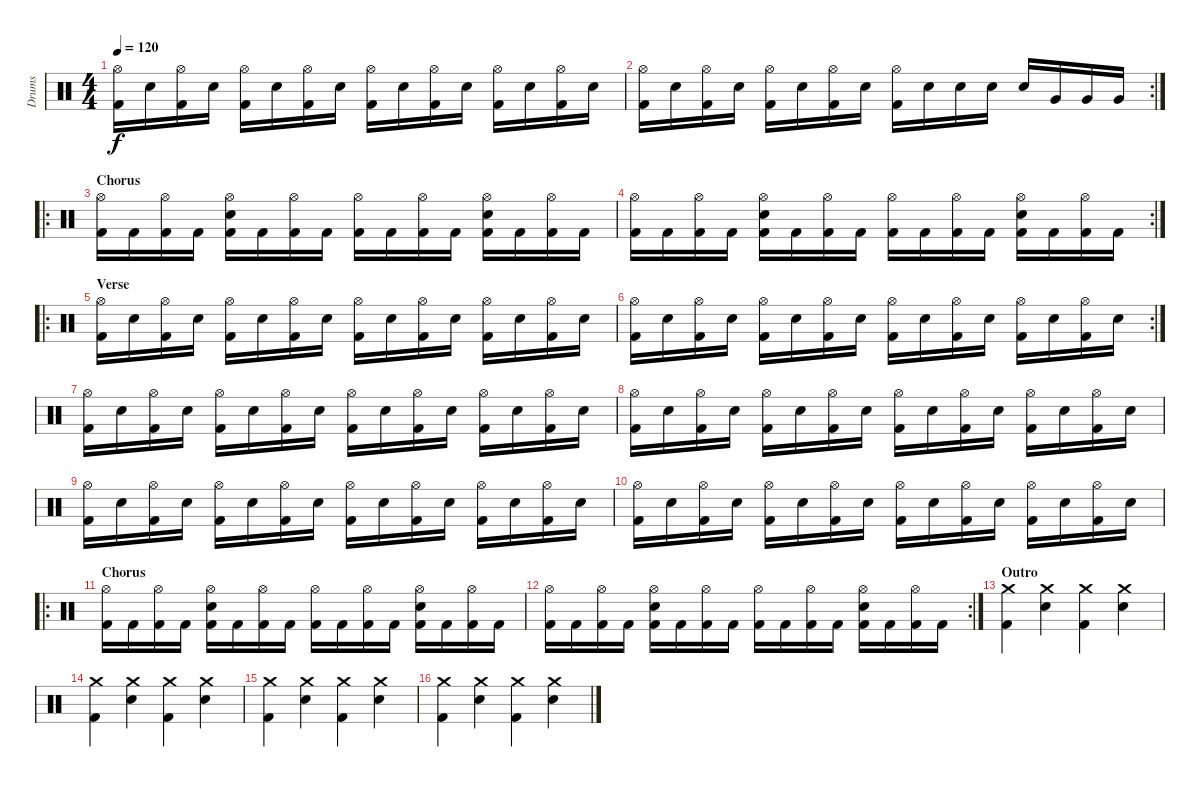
\track ("Drums" "Drums") {instrument percussion}
\staff {score}
\articulation defaults
\ts (4 4)
\tempo 120
\clef neutral
\ks c
("Hi-Hat (open)" "Kick (hit) 2").16{dy f} "Electric Snare (hit)".16 ("Hi-Hat (open)" "Kick (hit) 2").16 "Electric Snare (hit)".16 ("Hi-Hat (open)" "Kick (hit) 2").16 "Electric Snare (hit)".16 ("Hi-Hat (open)" "Kick (hit) 2").16 "Electric Snare (hit)".16 ("Hi-Hat (open)" "Kick (hit) 2").16 "Electric Snare (hit)".16 ("Hi-Hat (open)" "Kick (hit) 2").16 "Electric Snare (hit)".16 ("Hi-Hat (open)" "Kick (hit) 2").16 "Electric Snare (hit)".16 ("Hi-Hat (open)" "Kick (hit) 2").16 "Electric Snare (hit)".16 |
\rc 2
("Hi-Hat (open)" "Kick (hit) 2").16 "Electric Snare (hit)".16 ("Hi-Hat (open)" "Kick (hit) 2").16 "Electric Snare (hit)".16 ("Hi-Hat (open)" "Kick (hit) 2").16 "Electric Snare (hit)".16 ("Hi-Hat (open)" "Kick (hit) 2").16 "Electric Snare (hit)".16 ("Hi-Hat (open)" "Kick (hit) 2").16 "Electric Snare (hit)".16 "Electric Snare (hit)".16 "Electric Snare (hit)".16 "Electric Snare (hit)".16 "Very Low Tom (hit)".16 "Very Low Tom (hit)".16 "Very Low Tom (hit)".16 |
\ro
\section ("" "Chorus")
("Hi-Hat (open)" "Kick (hit) 2").16 "Kick (hit) 2".16 ("Hi-Hat (open)" "Kick (hit) 2").16 "Kick (hit) 2".16 ("Hi-Hat (open)" "Electric Snare (hit)" "Kick (hit) 2").16 "Kick (hit) 2".16 ("Hi-Hat (open)" "Kick (hit) 2").16 "Kick (hit) 2".16 ("Hi-Hat (open)" "Kick (hit) 2").16 "Kick (hit) 2".16 ("Hi-Hat (open)" "Kick (hit) 2").16 "Kick (hit) 2".16 ("Hi-Hat (open)" "Electric Snare (hit)" "Kick (hit) 2").16 "Kick (hit) 2".16 ("Hi-Hat (open)" "Kick (hit) 2").16 "Kick (hit) 2".16 |
\rc 2
("Hi-Hat (open)" "Kick (hit) 2").16 "Kick (hit) 2".16 ("Hi-Hat (open)" "Kick (hit) 2").16 "Kick (hit) 2".16 ("Hi-Hat (open)" "Electric Snare (hit)" "Kick (hit) 2").16 "Kick (hit) 2".16 ("Hi-Hat (open)" "Kick (hit) 2").16 "Kick (hit) 2".16 ("Hi-Hat (open)" "Kick (hit) 2").16 "Kick (hit) 2".16 ("Hi-Hat (open)" "Kick (hit) 2").16 "Kick (hit) 2".16 ("Hi-Hat (open)" "Electric Snare (hit)" "Kick (hit) 2").16 "Kick (hit) 2".16 ("Hi-Hat (open)" "Kick (hit) 2").16 "Kick (hit) 2".16 |
\ro
\section ("" "Verse")
("Hi-Hat (open)" "Kick (hit) 2").16 "Electric Snare (hit)".16 ("Hi-Hat (open)" "Kick (hit) 2").16 "Electric Snare (hit)".16 ("Hi-Hat (open)" "Kick (hit) 2").16 "Electric Snare (hit)".16 ("Hi-Hat (open)" "Kick (hit) 2").16 "Electric Snare (hit)".16 ("Hi-Hat (open)" "Kick (hit) 2").16 "Electric Snare (hit)".16 ("Hi-Hat (open)" "Kick (hit) 2").16 "Electric Snare (hit)".16 ("Hi-Hat (open)" "Kick (hit) 2").16 "Electric Snare (hit)".16 ("Hi-Hat (open)" "Kick (hit) 2").16 "Electric Snare (hit)".16 |
\rc 2
("Hi-Hat (open)" "Kick (hit) 2").16 "Electric Snare (hit)".16 ("Hi-Hat (open)" "Kick (hit) 2").16 "Electric Snare (hit)".16 ("Hi-Hat (open)" "Kick (hit) 2").16 "Electric Snare (hit)".16 ("Hi-Hat (open)" "Kick (hit) 2").16 "Electric Snare (hit)".16 ("Hi-Hat (open)" "Kick (hit) 2").16 "Electric Snare (hit)".16 ("Hi-Hat (open)" "Kick (hit) 2").16 "Electric Snare (hit)".16 ("Hi-Hat (open)" "Kick (hit) 2").16 "Electric Snare (hit)".16 ("Hi-Hat (open)" "Kick (hit) 2").16 "Electric Snare (hit)".16 |
("Hi-Hat (open)" "Kick (hit) 2").16 "Electric Snare (hit)".16 ("Hi-Hat (open)" "Kick (hit) 2").16 "Electric Snare (hit)".16 ("Hi-Hat (open)" "Kick (hit) 2").16 "Electric Snare (hit)".16 ("Hi-Hat (open)" "Kick (hit) 2").16 "Electric Snare (hit)".16 ("Hi-Hat (open)" "Kick (hit) 2").16 "Electric Snare (hit)".16 ("Hi-Hat (open)" "Kick (hit) 2").16 "Electric Snare (hit)".16 ("Hi-Hat (open)" "Kick (hit) 2").16 "Electric Snare (hit)".16 ("Hi-Hat (open)" "Kick (hit) 2").16 "Electric Snare (hit)".16 |
("Hi-Hat (open)" "Kick (hit) 2").16 "Electric Snare (hit)".16 ("Hi-Hat (open)" "Kick (hit) 2").16 "Electric Snare (hit)".16 ("Hi-Hat (open)" "Kick (hit) 2").16 "Electric Snare (hit)".16 ("Hi-Hat (open)" "Kick (hit) 2").16 "Electric Snare (hit)".16 ("Hi-Hat (open)" "Kick (hit) 2").16 "Electric Snare (hit)".16 ("Hi-Hat (open)" "Kick (hit) 2").16 "Electric Snare (hit)".16 ("Hi-Hat (open)" "Kick (hit) 2").16 "Electric Snare (hit)".16 ("Hi-Hat (open)" "Kick (hit) 2").16 "Electric Snare (hit)".16 |
("Hi-Hat (open)" "Kick (hit) 2").16 "Electric Snare (hit)".16 ("Hi-Hat (open)" "Kick (hit) 2").16 "Electric Snare (hit)".16 ("Hi-Hat (open)" "Kick (hit) 2").16 "Electric Snare (hit)".16 ("Hi-Hat (open)" "Kick (hit) 2").16 "Electric Snare (hit)".16 ("Hi-Hat (open)" "Kick (hit) 2").16 "Electric Snare (hit)".16 ("Hi-Hat (open)" "Kick (hit) 2").16 "Electric Snare (hit)".16 ("Hi-Hat (open)" "Kick (hit) 2").16 "Electric Snare (hit)".16 ("Hi-Hat (open)" "Kick (hit) 2").16 "Electric Snare (hit)".16 |
("Hi-Hat (open)" "Kick (hit) 2").16 "Electric Snare (hit)".16 ("Hi-Hat (open)" "Kick (hit) 2").16 "Electric Snare (hit)".16 ("Hi-Hat (open)" "Kick (hit) 2").16 "Electric Snare (hit)".16 ("Hi-Hat (open)" "Kick (hit) 2").16 "Electric Snare (hit)".16 ("Hi-Hat (open)" "Kick (hit) 2").16 "Electric Snare (hit)".16 ("Hi-Hat (open)" "Kick (hit) 2").16 "Electric Snare (hit)".16 ("Hi-Hat (open)" "Kick (hit) 2").16 "Electric Snare (hit)".16 ("Hi-Hat (open)" "Kick (hit) 2").16 "Electric Snare (hit)".16 |
\ro
\section ("" "Chorus")
("Hi-Hat (open)" "Kick (hit) 2").16 "Kick (hit) 2".16 ("Hi-Hat (open)" "Kick (hit) 2").16 "Kick (hit) 2".16 ("Hi-Hat (open)" "Electric Snare (hit)" "Kick (hit) 2").16 "Kick (hit) 2".16 ("Hi-Hat (open)" "Kick (hit) 2").16 "Kick (hit) 2".16 ("Hi-Hat (open)" "Kick (hit) 2").16 "Kick (hit) 2".16 ("Hi-Hat (open)" "Kick (hit) 2").16 "Kick (hit) 2".16 ("Hi-Hat (open)" "Electric Snare (hit)" "Kick (hit) 2").16 "Kick (hit) 2".16 ("Hi-Hat (open)" "Kick (hit) 2").16 "Kick (hit) 2".16 |
\rc 2
("Hi-Hat (open)" "Kick (hit) 2").16 "Kick (hit) 2".16 ("Hi-Hat (open)" "Kick (hit) 2").16 "Kick (hit) 2".16 ("Hi-Hat (open)" "Electric Snare (hit)" "Kick (hit) 2").16 "Kick (hit) 2".16 ("Hi-Hat (open)" "Kick (hit) 2").16 "Kick (hit) 2".16 ("Hi-Hat (open)" "Kick (hit) 2").16 "Kick (hit) 2".16 ("Hi-Hat (open)" "Kick (hit) 2").16 "Kick (hit) 2".16 ("Hi-Hat (open)" "Electric Snare (hit)" "Kick (hit) 2").16 "Kick (hit) 2".16 ("Hi-Hat (open)" "Kick (hit) 2").16 "Kick (hit) 2".16 |
\section ("" "Outro")
("Crash medium (hit)" "Kick (hit) 2").4 ("Crash medium (hit)" "Electric Snare (hit)").4 ("Crash medium (hit)" "Kick (hit) 2").4 ("Crash medium (hit)" "Electric Snare (hit)").4 |
("Crash medium (hit)" "Kick (hit) 2").4 ("Crash medium (hit)" "Electric Snare (hit)").4 ("Crash medium (hit)" "Kick (hit) 2").4 ("Crash medium (hit)" "Electric Snare (hit)").4 |
("Crash medium (hit)" "Kick (hit) 2").4 ("Crash medium (hit)" "Electric Snare (hit)").4 ("Crash medium (hit)" "Kick (hit) 2").4 ("Crash medium (hit)" "Electric Snare (hit)").4 |
("Crash medium (hit)" "Kick (hit) 2").4 ("Crash medium (hit)" "Electric Snare (hit)").4 ("Crash medium (hit)" "Kick (hit) 2").4 ("Crash medium (hit)" "Electric Snare (hit)").4
